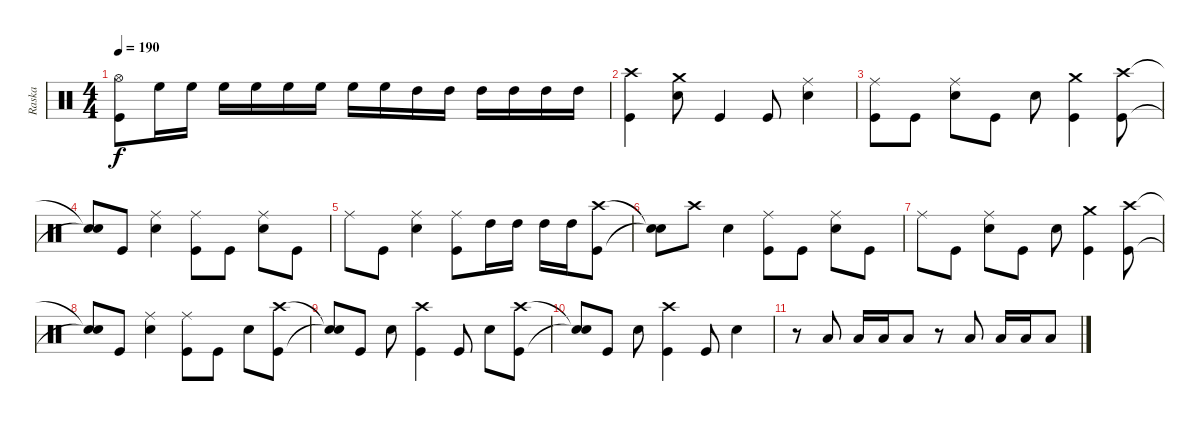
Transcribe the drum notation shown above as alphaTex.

\track ("Raska" "Raska") {instrument percussion}
\staff {score}
\articulation defaults
\ts (4 4)
\tempo 190
\clef neutral
\ks c
("Hi-Hat (open)" "Kick (hit)").8{dy f} "High Floor Tom (hit)".16 "High Floor Tom (hit)".16 "High Floor Tom (hit)".16 "High Floor Tom (hit)".16 "High Floor Tom (hit)".16 "High Floor Tom (hit)".16 "High Floor Tom (hit)".16 "High Floor Tom (hit)".16 "High Tom (hit)".16 "High Tom (hit)".16 "High Tom (hit)".16 "High Tom (hit)".16 "High Tom (hit)".16 "High Tom (hit)".16 |
("Crash high (hit)" "Kick (hit)").4 ("Crash medium (hit)" "Electric Snare (hit)").8 "Kick (hit)".4 "Kick (hit)".8 ("Ride (middle)" "Electric Snare (hit)").4 |
("Ride (middle)" "Kick (hit)").8 "Kick (hit)".8 ("Ride (middle)" "Electric Snare (hit)").8 "Kick (hit)".8 "Electric Snare (hit)".8 ("Crash medium (hit)" "Kick (hit)").4 ("Crash high (hit)" "Kick (hit)").8 |
("Snare (hit)"{t} "Snare (hit)"{t}).8 "Kick (hit)".8 ("Ride (middle)" "Electric Snare (hit)").4 ("Ride (middle)" "Kick (hit)").8 "Kick (hit)".8 ("Ride (middle)" "Electric Snare (hit)").8 "Kick (hit)".8 |
"Ride (middle)".8 "Kick (hit)".8 ("Ride (middle)" "Electric Snare (hit)").4 ("Ride (middle)" "Kick (hit)").8 "High Tom (hit)".16 "High Tom (hit)".16 "High Tom (hit)".16 "High Tom (hit)".16 ("Crash high (hit)" "Kick (hit)").8 |
("Snare (hit)"{t} "Snare (hit)"{t}).8 "Crash high (hit)".8 "Electric Snare (hit)".4 ("Ride (middle)" "Kick (hit)").8 "Kick (hit)".8 ("Ride (middle)" "Electric Snare (hit)").8 "Kick (hit)".8 |
"Ride (middle)".8 "Kick (hit)".8 ("Ride (middle)" "Electric Snare (hit)").8 "Kick (hit)".8 "Electric Snare (hit)".8 ("Crash medium (hit)" "Kick (hit)").4 ("Crash high (hit)" "Kick (hit)").8 |
("Snare (hit)"{t} "Snare (hit)"{t}).8 "Kick (hit)".8 ("Ride (middle)" "Electric Snare (hit)").4 ("Ride (middle)" "Kick (hit)").8 "Kick (hit)".8 "Electric Snare (hit)".8 ("Crash high (hit)" "Kick (hit)").8 |
("Snare (hit)"{t} "Snare (hit)"{t}).8 "Kick (hit)".8 "Electric Snare (hit)".8 ("Crash high (hit)" "Kick (hit)").4 "Kick (hit)".8 "Electric Snare (hit)".8 ("Crash high (hit)" "Kick (hit)").8 |
("Snare (hit)"{t} "Snare (hit)"{t}).8 "Kick (hit)".8 "Electric Snare (hit)".8 ("Crash high (hit)" "Kick (hit)").4 "Kick (hit)".8 "Electric Snare (hit)".4 |
r.8 "Low Tom (hit)".8 "Low Tom (hit)".16 "Low Tom (hit)".16 "Low Tom (hit)".8 r.8 "Low Tom (hit)".8 "Low Tom (hit)".16 "Low Tom (hit)".16 "Low Tom (hit)".8
